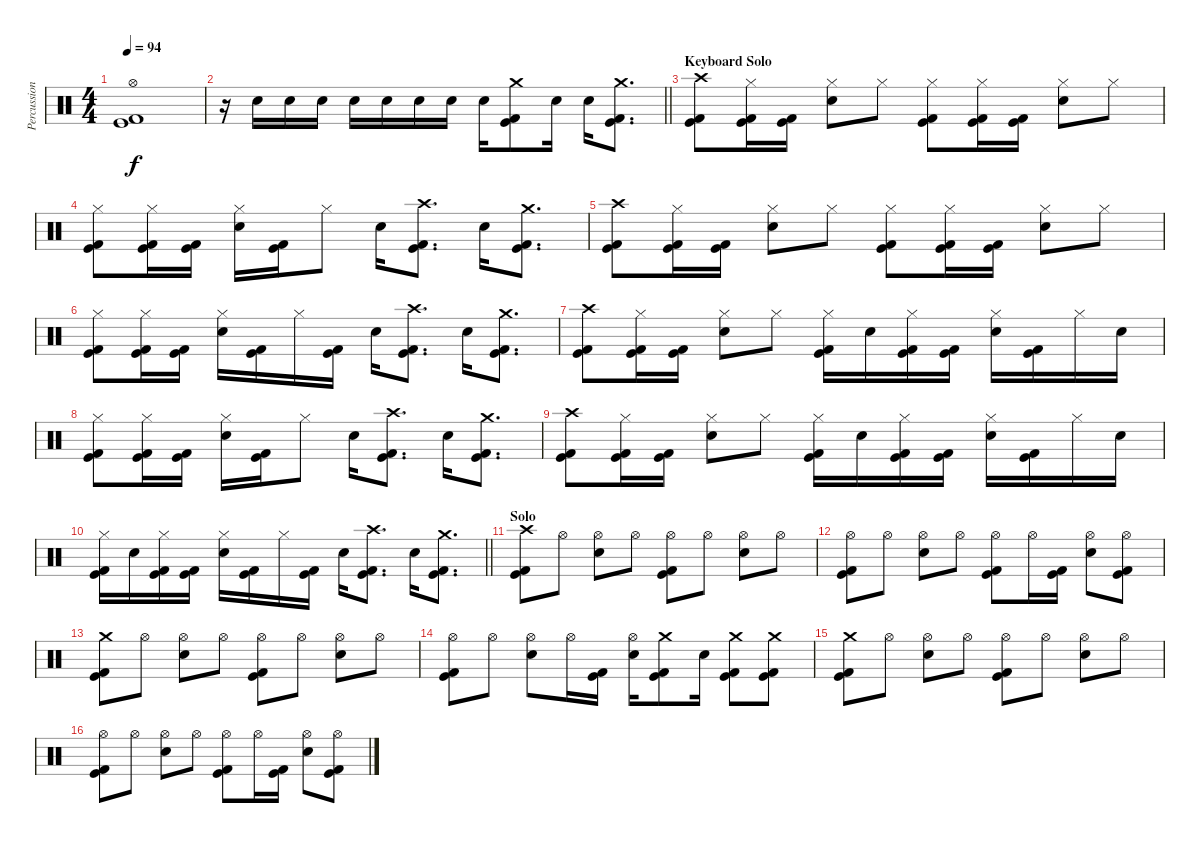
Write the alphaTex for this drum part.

\track ("Percussion" "Percussion") {instrument percussion}
\staff {score}
\articulation defaults
\ts (4 4)
\section ("" "")
\tempo 94
\clef neutral
\ks c
("Hi-Hat (open)" "Kick (hit)" "Kick (hit) 2").1{dy f} |
\barLineRight lightlight
r.16 "Electric Snare (hit)".16 "Electric Snare (hit)".16 "Electric Snare (hit)".16 "Electric Snare (hit)".16 "Electric Snare (hit)".16 "Electric Snare (hit)".16 "Electric Snare (hit)".16 "Electric Snare (hit)".16 ("Crash medium (hit)" "Kick (hit)" "Kick (hit) 2").8 "Electric Snare (hit)".16 "Electric Snare (hit)".16 ("Crash medium (hit)" "Kick (hit)" "Kick (hit) 2").8{d} |
\section ("" "Keyboard Solo")
("Crash high (hit)" "Kick (hit)" "Kick (hit) 2").8 ("Hi-Hat (closed)" "Kick (hit)" "Kick (hit) 2").16 ("Kick (hit)" "Kick (hit) 2").16 ("Hi-Hat (closed)" "Electric Snare (hit)").8 "Hi-Hat (closed)".8 ("Hi-Hat (closed)" "Kick (hit)" "Kick (hit) 2").8 ("Hi-Hat (closed)" "Kick (hit)" "Kick (hit) 2").16 ("Kick (hit)" "Kick (hit) 2").16 ("Hi-Hat (closed)" "Electric Snare (hit)").8 "Hi-Hat (closed)".8 |
("Hi-Hat (closed)" "Kick (hit)" "Kick (hit) 2").8 ("Hi-Hat (closed)" "Kick (hit)" "Kick (hit) 2").16 ("Kick (hit)" "Kick (hit) 2").16 ("Hi-Hat (closed)" "Electric Snare (hit)").16 ("Kick (hit)" "Kick (hit) 2").16 "Hi-Hat (closed)".8 "Electric Snare (hit)".16 ("Crash high (hit)" "Kick (hit)" "Kick (hit) 2").8{d} "Electric Snare (hit)".16 ("Crash medium (hit)" "Kick (hit)" "Kick (hit) 2").8{d} |
("Crash high (hit)" "Kick (hit)" "Kick (hit) 2").8 ("Hi-Hat (closed)" "Kick (hit)" "Kick (hit) 2").16 ("Kick (hit)" "Kick (hit) 2").16 ("Hi-Hat (closed)" "Electric Snare (hit)").8 "Hi-Hat (closed)".8 ("Hi-Hat (closed)" "Kick (hit)" "Kick (hit) 2").8 ("Hi-Hat (closed)" "Kick (hit)" "Kick (hit) 2").16 ("Kick (hit)" "Kick (hit) 2").16 ("Hi-Hat (closed)" "Electric Snare (hit)").8 "Hi-Hat (closed)".8 |
("Hi-Hat (closed)" "Kick (hit)" "Kick (hit) 2").8 ("Hi-Hat (closed)" "Kick (hit)" "Kick (hit) 2").16 ("Kick (hit)" "Kick (hit) 2").16 ("Hi-Hat (closed)" "Electric Snare (hit)").16 ("Kick (hit)" "Kick (hit) 2").16 "Hi-Hat (closed)".16 ("Kick (hit)" "Kick (hit) 2").16 "Electric Snare (hit)".16 ("Crash high (hit)" "Kick (hit)" "Kick (hit) 2").8{d} "Electric Snare (hit)".16 ("Crash medium (hit)" "Kick (hit)" "Kick (hit) 2").8{d} |
("Crash high (hit)" "Kick (hit)" "Kick (hit) 2").8 ("Hi-Hat (closed)" "Kick (hit)" "Kick (hit) 2").16 ("Kick (hit)" "Kick (hit) 2").16 ("Hi-Hat (closed)" "Electric Snare (hit)").8 "Hi-Hat (closed)".8 ("Hi-Hat (closed)" "Kick (hit)" "Kick (hit) 2").16 "Electric Snare (hit)".16 ("Hi-Hat (closed)" "Kick (hit)" "Kick (hit) 2").16 ("Kick (hit)" "Kick (hit) 2").16 ("Hi-Hat (closed)" "Electric Snare (hit)").16 ("Kick (hit)" "Kick (hit) 2").16 "Hi-Hat (closed)".16 "Electric Snare (hit)".16 |
("Hi-Hat (closed)" "Kick (hit)" "Kick (hit) 2").8 ("Hi-Hat (closed)" "Kick (hit)" "Kick (hit) 2").16 ("Kick (hit)" "Kick (hit) 2").16 ("Hi-Hat (closed)" "Electric Snare (hit)").16 ("Kick (hit)" "Kick (hit) 2").16 "Hi-Hat (closed)".8 "Electric Snare (hit)".16 ("Crash high (hit)" "Kick (hit)" "Kick (hit) 2").8{d} "Electric Snare (hit)".16 ("Crash medium (hit)" "Kick (hit)" "Kick (hit) 2").8{d} |
("Crash high (hit)" "Kick (hit)" "Kick (hit) 2").8 ("Hi-Hat (closed)" "Kick (hit)" "Kick (hit) 2").16 ("Kick (hit)" "Kick (hit) 2").16 ("Hi-Hat (closed)" "Electric Snare (hit)").8 "Hi-Hat (closed)".8 ("Hi-Hat (closed)" "Kick (hit)" "Kick (hit) 2").16 "Electric Snare (hit)".16 ("Hi-Hat (closed)" "Kick (hit)" "Kick (hit) 2").16 ("Kick (hit)" "Kick (hit) 2").16 ("Hi-Hat (closed)" "Electric Snare (hit)").16 ("Kick (hit)" "Kick (hit) 2").16 "Hi-Hat (closed)".16 "Electric Snare (hit)".16 |
\barLineRight lightlight
("Hi-Hat (closed)" "Kick (hit)" "Kick (hit) 2").16 "Electric Snare (hit)".16 ("Hi-Hat (closed)" "Kick (hit)" "Kick (hit) 2").16 ("Kick (hit)" "Kick (hit) 2").16 ("Hi-Hat (closed)" "Electric Snare (hit)").16 ("Kick (hit)" "Kick (hit) 2").16 "Hi-Hat (closed)".16 ("Kick (hit)" "Kick (hit) 2").16 "Electric Snare (hit)".16 ("Crash high (hit)" "Kick (hit)" "Kick (hit) 2").8{d} "Electric Snare (hit)".16 ("Crash medium (hit)" "Kick (hit)" "Kick (hit) 2").8{d} |
\section ("" "Solo")
("Crash high (hit)" "Kick (hit)" "Kick (hit) 2").8 "Hi-Hat (open)".8 ("Hi-Hat (open)" "Electric Snare (hit)").8 "Hi-Hat (open)".8 ("Hi-Hat (open)" "Kick (hit)" "Kick (hit) 2").8 "Hi-Hat (open)".8 ("Hi-Hat (open)" "Electric Snare (hit)").8 "Hi-Hat (open)".8 |
("Hi-Hat (open)" "Kick (hit)" "Kick (hit) 2").8 "Hi-Hat (open)".8 ("Hi-Hat (open)" "Electric Snare (hit)").8 "Hi-Hat (open)".8 ("Hi-Hat (open)" "Kick (hit)" "Kick (hit) 2").8 "Hi-Hat (open)".16 ("Kick (hit)" "Kick (hit) 2").16 ("Hi-Hat (open)" "Electric Snare (hit)").8 ("Hi-Hat (open)" "Kick (hit)" "Kick (hit) 2").8 |
("Crash medium (hit)" "Kick (hit)" "Kick (hit) 2").8 "Hi-Hat (open)".8 ("Hi-Hat (open)" "Electric Snare (hit)").8 "Hi-Hat (open)".8 ("Hi-Hat (open)" "Kick (hit)" "Kick (hit) 2").8 "Hi-Hat (open)".8 ("Hi-Hat (open)" "Electric Snare (hit)").8 "Hi-Hat (open)".8 |
("Hi-Hat (open)" "Kick (hit)" "Kick (hit) 2").8 "Hi-Hat (open)".8 ("Hi-Hat (open)" "Electric Snare (hit)").8 "Hi-Hat (open)".16 ("Kick (hit)" "Kick (hit) 2").16 ("Hi-Hat (open)" "Electric Snare (hit)").16 ("Crash medium (hit)" "Kick (hit)" "Kick (hit) 2").8 "Electric Snare (hit)".16 ("Crash medium (hit)" "Kick (hit)" "Kick (hit) 2").8 ("Crash medium (hit)" "Kick (hit)" "Kick (hit) 2").8 |
("Crash medium (hit)" "Kick (hit)" "Kick (hit) 2").8 "Hi-Hat (open)".8 ("Hi-Hat (open)" "Electric Snare (hit)").8 "Hi-Hat (open)".8 ("Hi-Hat (open)" "Kick (hit)" "Kick (hit) 2").8 "Hi-Hat (open)".8 ("Hi-Hat (open)" "Electric Snare (hit)").8 "Hi-Hat (open)".8 |
("Hi-Hat (open)" "Kick (hit)" "Kick (hit) 2").8 "Hi-Hat (open)".8 ("Hi-Hat (open)" "Electric Snare (hit)").8 "Hi-Hat (open)".8 ("Hi-Hat (open)" "Kick (hit)" "Kick (hit) 2").8 "Hi-Hat (open)".16 ("Kick (hit)" "Kick (hit) 2").16 ("Hi-Hat (open)" "Electric Snare (hit)").8 ("Hi-Hat (open)" "Kick (hit)" "Kick (hit) 2").8
